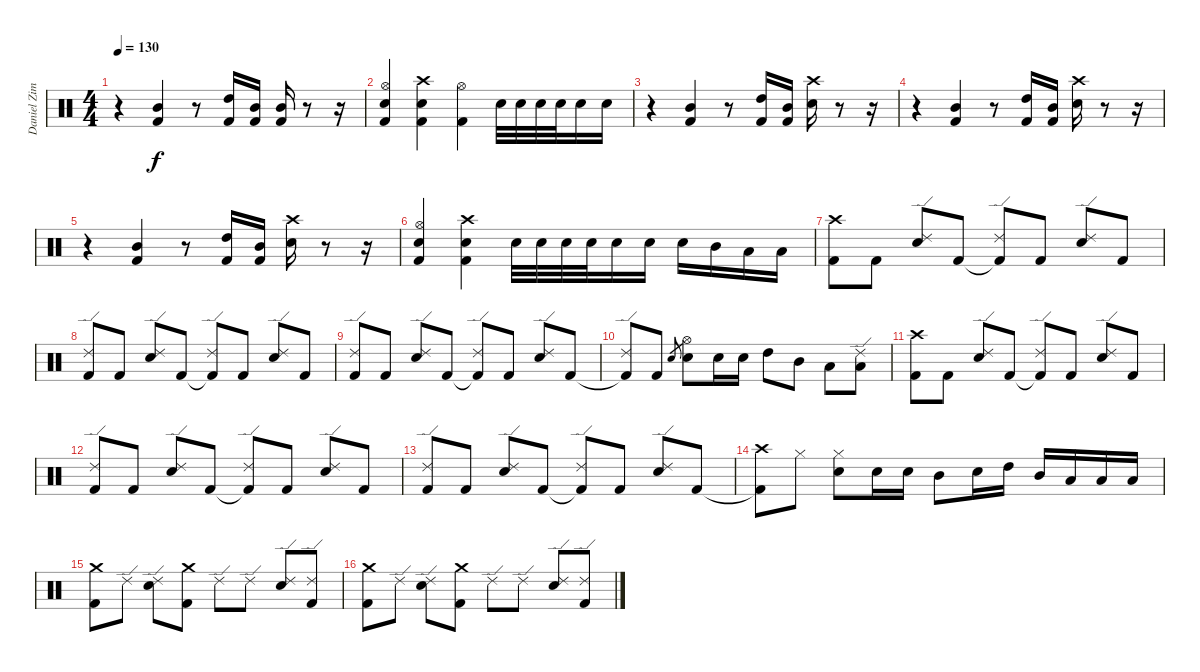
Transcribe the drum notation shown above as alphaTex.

\track ("Daniel Zimmermann" "Daniel Zim") {instrument percussion}
\staff {score}
\articulation defaults
\ts (4 4)
\tempo 130
\clef neutral
\ks c
r.4{dy f} ("Kick (hit) 2" "Mid Tom (hit)").4 r.8 ("Kick (hit) 2" "High Tom (hit)").16 ("Kick (hit) 2" "Mid Tom (hit)").16 ("Kick (hit) 2" "Mid Tom (hit)").16 r.8 r.16 |
("Kick (hit) 2" "Hi-Hat (open)" "Electric Snare (hit)").4 ("Kick (hit) 2" "Crash high (hit)" "Electric Snare (hit)").4 ("Kick (hit) 2" "Hi-Hat (open)").4 "Electric Snare (hit)".32 "Electric Snare (hit)".32 "Electric Snare (hit)".32 "Electric Snare (hit)".32 "Electric Snare (hit)".16 "Electric Snare (hit)".16 |
r.4 ("Kick (hit) 2" "Mid Tom (hit)").4 r.8 ("Kick (hit) 2" "High Tom (hit)").16 ("Kick (hit) 2" "Mid Tom (hit)").16 ("Electric Snare (hit)" "Crash high (hit)").16 r.8 r.16 |
r.4 ("Kick (hit) 2" "Mid Tom (hit)").4 r.8 ("Kick (hit) 2" "High Tom (hit)").16 ("Kick (hit) 2" "Mid Tom (hit)").16 ("Electric Snare (hit)" "Crash high (hit)").16 r.8 r.16 |
r.4 ("Kick (hit) 2" "Mid Tom (hit)").4 r.8 ("Kick (hit) 2" "High Tom (hit)").16 ("Kick (hit) 2" "Mid Tom (hit)").16 ("Electric Snare (hit)" "Crash high (hit)").16 r.8 r.16 |
("Kick (hit) 2" "Hi-Hat (open)" "Electric Snare (hit)").4 ("Kick (hit) 2" "Crash high (hit)" "Electric Snare (hit)").4 "Electric Snare (hit)".32 "Electric Snare (hit)".32 "Electric Snare (hit)".32 "Electric Snare (hit)".32 "Electric Snare (hit)".16 "Electric Snare (hit)".16 "Electric Snare (hit)".16 "Mid Tom (hit)".16 "Low Tom (hit)".16 "Low Floor Tom (hit)".16 |
("Kick (hit) 2" "Crash high (hit)").8 "Kick (hit) 2".8 ("Electric Snare (hit)" "Ride (edge) 2").8 "Kick (hit) 2".8 ("Kick (hit) 2"{t} "Ride (edge) 2").8 "Kick (hit) 2".8 ("Electric Snare (hit)" "Ride (edge) 2").8 "Kick (hit) 2".8 |
("Kick (hit) 2" "Ride (edge) 2").8 "Kick (hit) 2".8 ("Electric Snare (hit)" "Ride (edge) 2").8 "Kick (hit) 2".8 ("Kick (hit) 2"{t} "Ride (edge) 2").8 "Kick (hit) 2".8 ("Electric Snare (hit)" "Ride (edge) 2").8 "Kick (hit) 2".8 |
("Kick (hit) 2" "Ride (edge) 2").8 "Kick (hit) 2".8 ("Electric Snare (hit)" "Ride (edge) 2").8 "Kick (hit) 2".8 ("Kick (hit) 2"{t} "Ride (edge) 2").8 "Kick (hit) 2".8 ("Electric Snare (hit)" "Ride (edge) 2").8 "Kick (hit) 2".8 |
("Kick (hit) 2"{t} "Ride (edge) 2").8 "Kick (hit) 2".8 "Electric Snare (hit)".8{gr} ("Electric Snare (hit)" "Hi-Hat (open)").8 "Electric Snare (hit)".16 "Electric Snare (hit)".16 "High Tom (hit)".8 "Mid Tom (hit)".8 "Low Tom (hit)".8 ("Low Floor Tom (hit)" "Ride (edge) 2").8 |
("Kick (hit) 2" "Crash high (hit)").8 "Kick (hit) 2".8 ("Electric Snare (hit)" "Ride (edge) 2").8 "Kick (hit) 2".8 ("Kick (hit) 2"{t} "Ride (edge) 2").8 "Kick (hit) 2".8 ("Electric Snare (hit)" "Ride (edge) 2").8 "Kick (hit) 2".8 |
("Kick (hit) 2" "Ride (edge) 2").8 "Kick (hit) 2".8 ("Electric Snare (hit)" "Ride (edge) 2").8 "Kick (hit) 2".8 ("Kick (hit) 2"{t} "Ride (edge) 2").8 "Kick (hit) 2".8 ("Electric Snare (hit)" "Ride (edge) 2").8 "Kick (hit) 2".8 |
("Kick (hit) 2" "Ride (edge) 2").8 "Kick (hit) 2".8 ("Electric Snare (hit)" "Ride (edge) 2").8 "Kick (hit) 2".8 ("Kick (hit) 2"{t} "Ride (edge) 2").8 "Kick (hit) 2".8 ("Electric Snare (hit)" "Ride (edge) 2").8 "Kick (hit) 2".8 |
("Kick (hit) 2"{t} "Crash high (hit)").8 "Hi-Hat (closed)".8 ("Electric Snare (hit)" "Hi-Hat (closed)").8 "Electric Snare (hit)".16 "Electric Snare (hit)".16 "Mid Tom (hit)".8 "Electric Snare (hit)".16 "High Tom (hit)".16 "Mid Tom (hit)".16 "Low Tom (hit)".16 "Low Floor Tom (hit)".16 "Low Floor Tom (hit)".16 |
("Kick (hit) 2" "Crash medium (hit)").8 "Ride (edge) 2".8 ("Electric Snare (hit)" "Ride (edge) 2").8 ("Kick (hit) 2" "Crash medium (hit)").8 "Ride (edge) 2".8 "Ride (edge) 2".8 ("Electric Snare (hit)" "Ride (edge) 2").8 ("Kick (hit) 2" "Ride (edge) 2").8 |
("Kick (hit) 2" "Crash medium (hit)").8 "Ride (edge) 2".8 ("Electric Snare (hit)" "Ride (edge) 2").8 ("Kick (hit) 2" "Crash medium (hit)").8 "Ride (edge) 2".8 "Ride (edge) 2".8 ("Electric Snare (hit)" "Ride (edge) 2").8 ("Kick (hit) 2" "Ride (edge) 2").8
